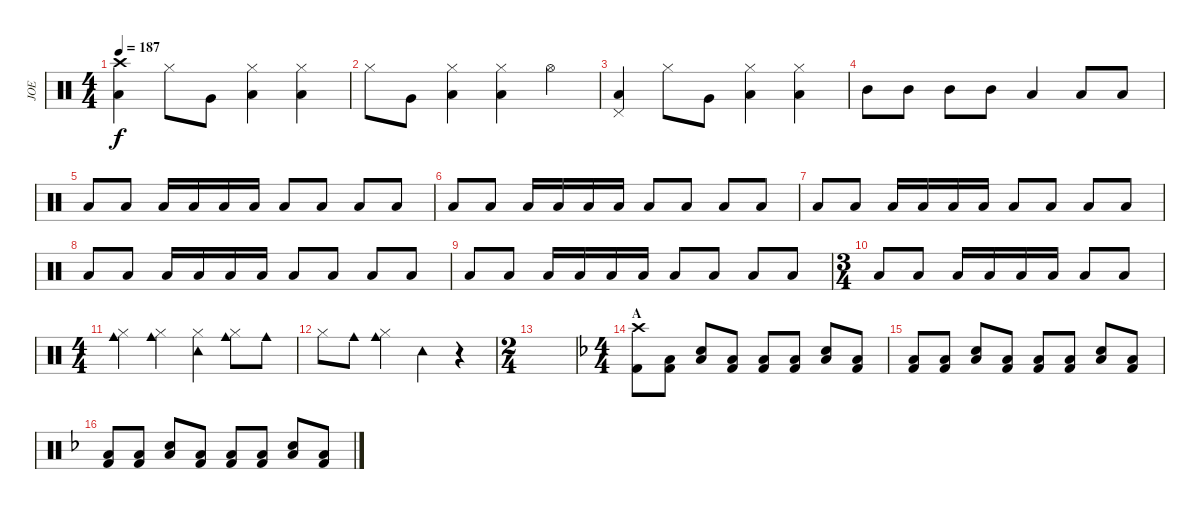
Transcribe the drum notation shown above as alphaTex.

\track ("JOE" "JOE") {instrument percussion}
\staff {score}
\articulation defaults
\ts (4 4)
\tempo 187
\clef neutral
\ks c
("Crash high (hit)" "Low Floor Tom (hit)").4{dy f} "Hi-Hat (closed)".8 "Very Low Tom (hit)".8 ("Hi-Hat (closed)" "Low Floor Tom (hit)").4 ("Hi-Hat (closed)" "Low Floor Tom (hit)").4 |
"Hi-Hat (closed)".8 "Very Low Tom (hit)".8 ("Hi-Hat (closed)" "Low Floor Tom (hit)").4 ("Hi-Hat (closed)" "Low Floor Tom (hit)").4 "Hi-Hat (open)".4 |
("Pedal Hi-Hat (hit)" "Low Floor Tom (hit)").4 "Hi-Hat (closed)".8 "Very Low Tom (hit)".8 ("Hi-Hat (closed)" "Low Floor Tom (hit)").4 ("Hi-Hat (closed)" "Low Floor Tom (hit)").4 |
"Mid Tom (hit)".8 "Mid Tom (hit)".8 "Mid Tom (hit)".8 "Mid Tom (hit)".8 "Low Tom (hit)".4 "Low Tom (hit)".8 "Low Tom (hit)".8 |
"Low Tom (hit)".8 "Low Tom (hit)".8 "Low Tom (hit)".16 "Low Tom (hit)".16 "Low Tom (hit)".16 "Low Tom (hit)".16 "Low Tom (hit)".8 "Low Tom (hit)".8 "Low Tom (hit)".8 "Low Tom (hit)".8 |
"Low Tom (hit)".8 "Low Tom (hit)".8 "Low Tom (hit)".16 "Low Tom (hit)".16 "Low Tom (hit)".16 "Low Tom (hit)".16 "Low Tom (hit)".8 "Low Tom (hit)".8 "Low Tom (hit)".8 "Low Tom (hit)".8 |
"Low Tom (hit)".8 "Low Tom (hit)".8 "Low Tom (hit)".16 "Low Tom (hit)".16 "Low Tom (hit)".16 "Low Tom (hit)".16 "Low Tom (hit)".8 "Low Tom (hit)".8 "Low Tom (hit)".8 "Low Tom (hit)".8 |
"Low Tom (hit)".8 "Low Tom (hit)".8 "Low Tom (hit)".16 "Low Tom (hit)".16 "Low Tom (hit)".16 "Low Tom (hit)".16 "Low Tom (hit)".8 "Low Tom (hit)".8 "Low Tom (hit)".8 "Low Tom (hit)".8 |
"Low Tom (hit)".8 "Low Tom (hit)".8 "Low Tom (hit)".16 "Low Tom (hit)".16 "Low Tom (hit)".16 "Low Tom (hit)".16 "Low Tom (hit)".8 "Low Tom (hit)".8 "Low Tom (hit)".8 "Low Tom (hit)".8 |
\ts (3 4)
"Low Tom (hit)".8 "Low Tom (hit)".8 "Low Tom (hit)".16 "Low Tom (hit)".16 "Low Tom (hit)".16 "Low Tom (hit)".16 "Low Tom (hit)".8 "Low Tom (hit)".8 |
\ts (4 4)
("Hi-Hat (closed)" "Cowbell medium (hit)").4 ("Hi-Hat (closed)" "Cowbell medium (hit)").4 ("Hi-Hat (closed)" "Tambourine (hit)").4 ("Hi-Hat (closed)" "Cowbell medium (hit)").8 "Cowbell medium (hit)".8 |
"Hi-Hat (closed)".8 "Cowbell medium (hit)".8 ("Hi-Hat (closed)" "Cowbell medium (hit)").4 "Tambourine (hit)".4 r.4 |
\ts (2 4)
|
\ts (4 4)
\section ("" "A")
\ks dminor
("Crash high (hit)" "Kick (hit) 2").8 ("Low Floor Tom (hit)" "Kick (hit) 2").8 ("Low Floor Tom (hit)" "Snare (hit) 2").8 ("Low Floor Tom (hit)" "Kick (hit) 2").8 ("Low Floor Tom (hit)" "Kick (hit) 2").8 ("Low Floor Tom (hit)" "Kick (hit) 2").8 ("Low Floor Tom (hit)" "Snare (hit) 2").8 ("Low Floor Tom (hit)" "Kick (hit) 2").8 |
("Low Floor Tom (hit)" "Kick (hit) 2").8 ("Low Floor Tom (hit)" "Kick (hit) 2").8 ("Low Floor Tom (hit)" "Snare (hit) 2").8 ("Low Floor Tom (hit)" "Kick (hit) 2").8 ("Low Floor Tom (hit)" "Kick (hit) 2").8 ("Low Floor Tom (hit)" "Kick (hit) 2").8 ("Low Floor Tom (hit)" "Snare (hit) 2").8 ("Low Floor Tom (hit)" "Kick (hit) 2").8 |
("Low Floor Tom (hit)" "Kick (hit) 2").8 ("Low Floor Tom (hit)" "Kick (hit) 2").8 ("Low Floor Tom (hit)" "Snare (hit) 2").8 ("Low Floor Tom (hit)" "Kick (hit) 2").8 ("Low Floor Tom (hit)" "Kick (hit) 2").8 ("Low Floor Tom (hit)" "Kick (hit) 2").8 ("Low Floor Tom (hit)" "Snare (hit) 2").8 ("Low Floor Tom (hit)" "Kick (hit) 2").8
